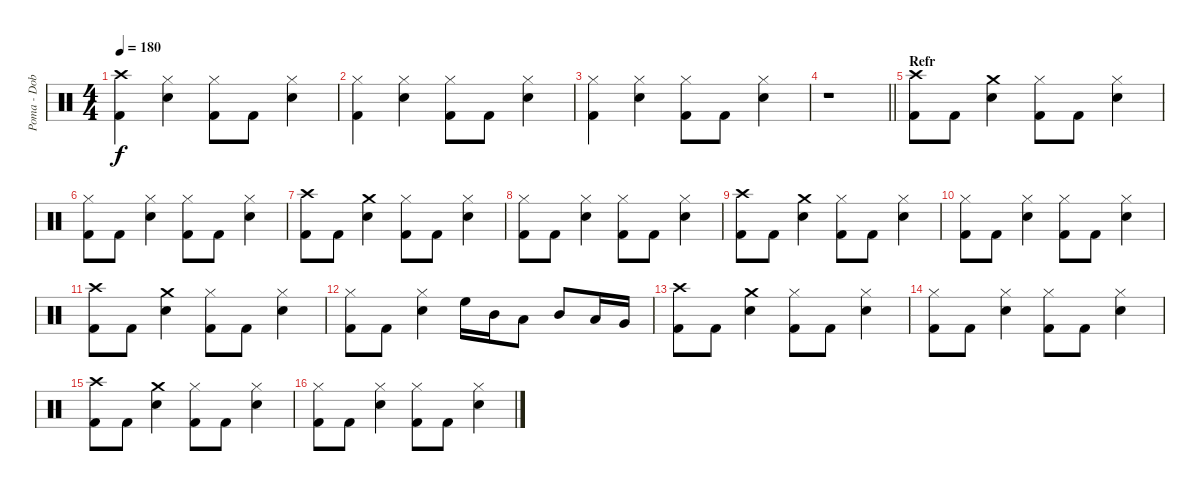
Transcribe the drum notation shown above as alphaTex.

\track ("Poma - Dob" "Poma - Dob") {instrument percussion}
\staff {score}
\articulation defaults
\ts (4 4)
\tempo 180
\clef neutral
\ks c
("Crash high (hit)" "Kick (hit) 2").4{dy f} ("Hi-Hat (closed)" "Electric Snare (hit)").4 ("Hi-Hat (closed)" "Kick (hit) 2").8 "Kick (hit) 2".8 ("Hi-Hat (closed)" "Electric Snare (hit)").4 |
("Hi-Hat (closed)" "Kick (hit) 2").4 ("Hi-Hat (closed)" "Electric Snare (hit)").4 ("Hi-Hat (closed)" "Kick (hit) 2").8 "Kick (hit) 2".8 ("Hi-Hat (closed)" "Electric Snare (hit)").4 |
("Hi-Hat (closed)" "Kick (hit) 2").4 ("Hi-Hat (closed)" "Electric Snare (hit)").4 ("Hi-Hat (closed)" "Kick (hit) 2").8 "Kick (hit) 2".8 ("Hi-Hat (closed)" "Electric Snare (hit)").4 |
\barLineRight lightlight
r.1 |
\section ("" "Refr")
("Crash high (hit)" "Kick (hit) 2").8 "Kick (hit) 2".8 ("Crash medium (hit)" "Electric Snare (hit)").4 ("Hi-Hat (closed)" "Kick (hit) 2").8 "Kick (hit) 2".8 ("Hi-Hat (closed)" "Electric Snare (hit)").4 |
("Hi-Hat (closed)" "Kick (hit) 2").8 "Kick (hit) 2".8 ("Hi-Hat (closed)" "Electric Snare (hit)").4 ("Hi-Hat (closed)" "Kick (hit) 2").8 "Kick (hit) 2".8 ("Hi-Hat (closed)" "Electric Snare (hit)").4 |
("Crash high (hit)" "Kick (hit) 2").8 "Kick (hit) 2".8 ("Crash medium (hit)" "Electric Snare (hit)").4 ("Hi-Hat (closed)" "Kick (hit) 2").8 "Kick (hit) 2".8 ("Hi-Hat (closed)" "Electric Snare (hit)").4 |
("Hi-Hat (closed)" "Kick (hit) 2").8 "Kick (hit) 2".8 ("Hi-Hat (closed)" "Electric Snare (hit)").4 ("Hi-Hat (closed)" "Kick (hit) 2").8 "Kick (hit) 2".8 ("Hi-Hat (closed)" "Electric Snare (hit)").4 |
("Crash high (hit)" "Kick (hit) 2").8 "Kick (hit) 2".8 ("Crash medium (hit)" "Electric Snare (hit)").4 ("Hi-Hat (closed)" "Kick (hit) 2").8 "Kick (hit) 2".8 ("Hi-Hat (closed)" "Electric Snare (hit)").4 |
("Hi-Hat (closed)" "Kick (hit) 2").8 "Kick (hit) 2".8 ("Hi-Hat (closed)" "Electric Snare (hit)").4 ("Hi-Hat (closed)" "Kick (hit) 2").8 "Kick (hit) 2".8 ("Hi-Hat (closed)" "Electric Snare (hit)").4 |
("Crash high (hit)" "Kick (hit) 2").8 "Kick (hit) 2".8 ("Crash medium (hit)" "Electric Snare (hit)").4 ("Hi-Hat (closed)" "Kick (hit) 2").8 "Kick (hit) 2".8 ("Hi-Hat (closed)" "Electric Snare (hit)").4 |
("Hi-Hat (closed)" "Kick (hit) 2").8 "Kick (hit) 2".8 ("Hi-Hat (closed)" "Electric Snare (hit)").4 "High Floor Tom (hit)".16 "Mid Tom (hit)".16 "Low Tom (hit)".8 "Mid Tom (hit)".8 "Low Tom (hit)".16 "Very Low Tom (hit)".16 |
("Crash high (hit)" "Kick (hit) 2").8 "Kick (hit) 2".8 ("Crash medium (hit)" "Electric Snare (hit)").4 ("Hi-Hat (closed)" "Kick (hit) 2").8 "Kick (hit) 2".8 ("Hi-Hat (closed)" "Electric Snare (hit)").4 |
("Hi-Hat (closed)" "Kick (hit) 2").8 "Kick (hit) 2".8 ("Hi-Hat (closed)" "Electric Snare (hit)").4 ("Hi-Hat (closed)" "Kick (hit) 2").8 "Kick (hit) 2".8 ("Hi-Hat (closed)" "Electric Snare (hit)").4 |
("Crash high (hit)" "Kick (hit) 2").8 "Kick (hit) 2".8 ("Crash medium (hit)" "Electric Snare (hit)").4 ("Hi-Hat (closed)" "Kick (hit) 2").8 "Kick (hit) 2".8 ("Hi-Hat (closed)" "Electric Snare (hit)").4 |
("Hi-Hat (closed)" "Kick (hit) 2").8 "Kick (hit) 2".8 ("Hi-Hat (closed)" "Electric Snare (hit)").4 ("Hi-Hat (closed)" "Kick (hit) 2").8 "Kick (hit) 2".8 ("Hi-Hat (closed)" "Electric Snare (hit)").4
